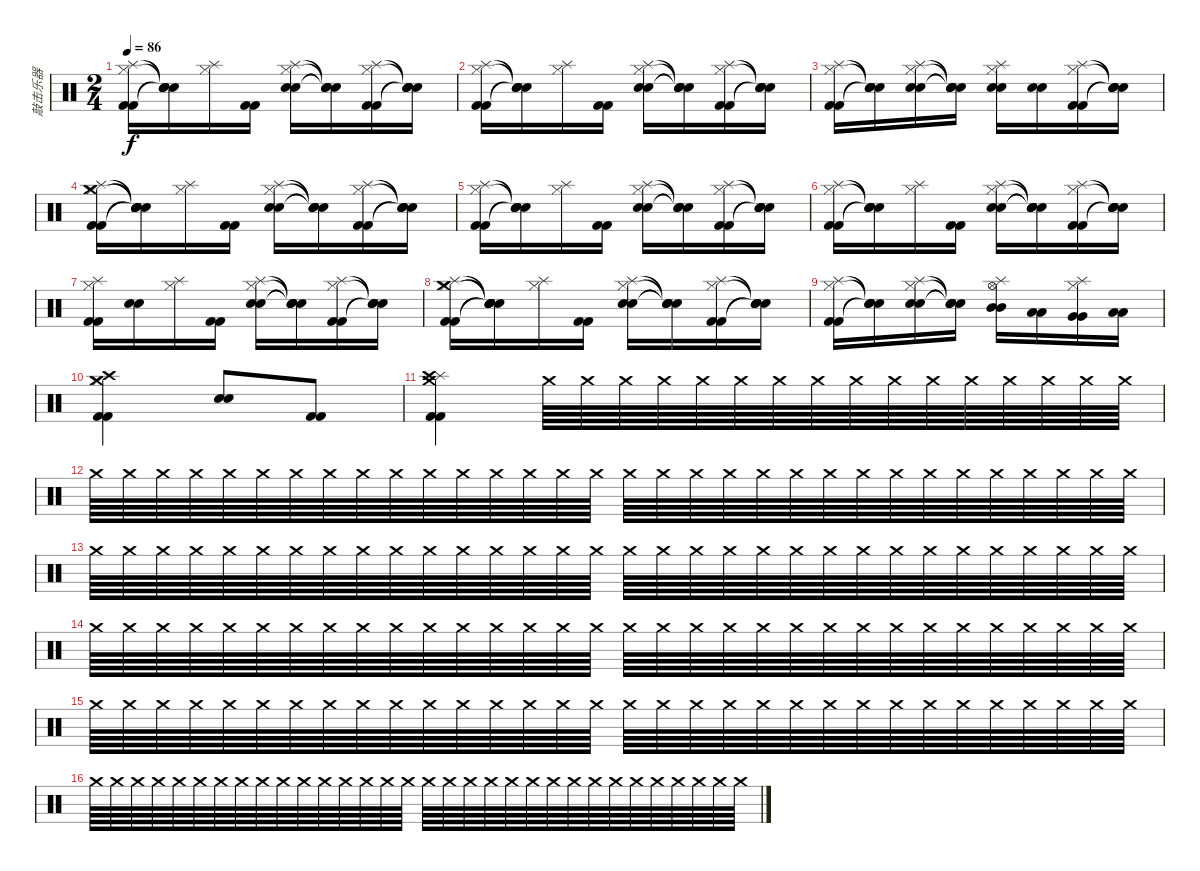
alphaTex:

\track ("敲击乐器" "敲击乐器") {instrument percussion}
\staff {score}
\articulation defaults
\ts (2 4)
\tempo 86
\clef neutral
\ks c
("Hi-Hat (closed)" "Splash (hit)" "Kick (hit) 2" "Kick (hit) 2").16{dy f} ("Snare (hit)"{t} "Snare (hit)"{t} "Snare (hit)"{t} "Snare (hit)"{t}).16 ("Hi-Hat (closed)" "Splash (hit)").16 ("Kick (hit) 2" "Kick (hit) 2").16 ("Hi-Hat (closed)" "Splash (hit)" "Electric Snare (hit)" "Electric Snare (hit)").16 ("Snare (hit)"{t} "Snare (hit)"{t} "Snare (hit)"{t} "Snare (hit)"{t}).16 ("Hi-Hat (closed)" "Splash (hit)" "Kick (hit) 2" "Kick (hit) 2").16 ("Snare (hit)"{t} "Snare (hit)"{t} "Snare (hit)"{t} "Snare (hit)"{t}).16 |
("Hi-Hat (closed)" "Splash (hit)" "Kick (hit) 2" "Kick (hit) 2").16 ("Snare (hit)"{t} "Snare (hit)"{t} "Snare (hit)"{t} "Snare (hit)"{t}).16 ("Hi-Hat (closed)" "Splash (hit)").16 ("Kick (hit) 2" "Kick (hit) 2").16 ("Hi-Hat (closed)" "Splash (hit)" "Electric Snare (hit)" "Electric Snare (hit)").16 ("Snare (hit)"{t} "Snare (hit)"{t} "Snare (hit)"{t} "Snare (hit)"{t}).16 ("Hi-Hat (closed)" "Splash (hit)" "Kick (hit) 2" "Kick (hit) 2").16 ("Snare (hit)"{t} "Snare (hit)"{t} "Snare (hit)"{t} "Snare (hit)"{t}).16 |
("Hi-Hat (closed)" "Splash (hit)" "Kick (hit) 2" "Kick (hit) 2").16 ("Snare (hit)"{t} "Snare (hit)"{t} "Snare (hit)"{t} "Snare (hit)"{t}).16 ("Hi-Hat (closed)" "Splash (hit)" "Electric Snare (hit)" "Electric Snare (hit)").16 ("Snare (hit)"{t} "Snare (hit)"{t} "Snare (hit)"{t} "Snare (hit)"{t}).16 ("Hi-Hat (closed)" "Splash (hit)" "Electric Snare (hit)" "Electric Snare (hit)").16 ("Electric Snare (hit)" "Electric Snare (hit)").16 ("Hi-Hat (closed)" "Splash (hit)" "Kick (hit) 2" "Kick (hit) 2").16 ("Snare (hit)"{t} "Snare (hit)"{t} "Snare (hit)"{t} "Snare (hit)"{t}).16 |
("Hi-Hat (closed)" "Splash (hit)" "Crash medium (hit)" "Kick (hit) 2" "Kick (hit) 2").16 ("Snare (hit)"{t} "Snare (hit)"{t} "Snare (hit)"{t} "Snare (hit)"{t} "Snare (hit)"{t}).16 ("Hi-Hat (closed)" "Splash (hit)").16 ("Kick (hit) 2" "Kick (hit) 2").16 ("Hi-Hat (closed)" "Splash (hit)" "Electric Snare (hit)" "Electric Snare (hit)").16 ("Snare (hit)"{t} "Snare (hit)"{t} "Snare (hit)"{t} "Snare (hit)"{t}).16 ("Hi-Hat (closed)" "Splash (hit)" "Kick (hit) 2" "Kick (hit) 2").16 ("Snare (hit)"{t} "Snare (hit)"{t} "Snare (hit)"{t} "Snare (hit)"{t}).16 |
("Hi-Hat (closed)" "Splash (hit)" "Kick (hit) 2" "Kick (hit) 2").16 ("Snare (hit)"{t} "Snare (hit)"{t} "Snare (hit)"{t} "Snare (hit)"{t}).16 ("Hi-Hat (closed)" "Splash (hit)").16 ("Kick (hit) 2" "Kick (hit) 2").16 ("Hi-Hat (closed)" "Splash (hit)" "Electric Snare (hit)" "Electric Snare (hit)").16 ("Snare (hit)"{t} "Snare (hit)"{t} "Snare (hit)"{t} "Snare (hit)"{t}).16 ("Hi-Hat (closed)" "Splash (hit)" "Kick (hit) 2" "Kick (hit) 2").16 ("Snare (hit)"{t} "Snare (hit)"{t} "Snare (hit)"{t} "Snare (hit)"{t}).16 |
("Hi-Hat (closed)" "Splash (hit)" "Kick (hit) 2" "Kick (hit) 2").16 ("Snare (hit)"{t} "Snare (hit)"{t} "Snare (hit)"{t} "Snare (hit)"{t}).16 ("Hi-Hat (closed)" "Splash (hit)").16 ("Kick (hit) 2" "Kick (hit) 2").16 ("Hi-Hat (closed)" "Splash (hit)" "Electric Snare (hit)" "Electric Snare (hit)").16 ("Snare (hit)"{t} "Snare (hit)"{t} "Snare (hit)"{t} "Snare (hit)"{t}).16 ("Hi-Hat (closed)" "Splash (hit)" "Kick (hit) 2" "Kick (hit) 2").16 ("Snare (hit)"{t} "Snare (hit)"{t} "Snare (hit)"{t} "Snare (hit)"{t}).16 |
("Hi-Hat (closed)" "Splash (hit)" "Kick (hit) 2" "Kick (hit) 2").16 ("Electric Snare (hit)" "Electric Snare (hit)").16 ("Hi-Hat (closed)" "Splash (hit)").16 ("Kick (hit) 2" "Kick (hit) 2").16 ("Hi-Hat (closed)" "Splash (hit)" "Electric Snare (hit)" "Electric Snare (hit)").16 ("Snare (hit)"{t} "Snare (hit)"{t} "Snare (hit)"{t} "Snare (hit)"{t}).16 ("Hi-Hat (closed)" "Splash (hit)" "Kick (hit) 2" "Kick (hit) 2").16 ("Snare (hit)"{t} "Snare (hit)"{t} "Snare (hit)"{t} "Snare (hit)"{t}).16 |
("Hi-Hat (closed)" "Splash (hit)" "Crash medium (hit)" "Kick (hit) 2" "Kick (hit) 2").16 ("Snare (hit)"{t} "Snare (hit)"{t} "Snare (hit)"{t} "Snare (hit)"{t} "Snare (hit)"{t}).16 ("Hi-Hat (closed)" "Splash (hit)").16 ("Kick (hit) 2" "Kick (hit) 2").16 ("Hi-Hat (closed)" "Splash (hit)" "Electric Snare (hit)" "Electric Snare (hit)").16 ("Snare (hit)"{t} "Snare (hit)"{t} "Snare (hit)"{t} "Snare (hit)"{t}).16 ("Hi-Hat (closed)" "Splash (hit)" "Kick (hit) 2" "Kick (hit) 2").16 ("Snare (hit)"{t} "Snare (hit)"{t} "Snare (hit)"{t} "Snare (hit)"{t}).16 |
("Hi-Hat (closed)" "Splash (hit)" "Kick (hit) 2" "Kick (hit) 2").16 ("Snare (hit)"{t} "Snare (hit)"{t} "Snare (hit)"{t} "Snare (hit)"{t}).16 ("Hi-Hat (closed)" "Splash (hit)" "Electric Snare (hit)" "Electric Snare (hit)").16 ("Snare (hit)"{t} "Snare (hit)"{t} "Snare (hit)"{t} "Snare (hit)"{t}).16 ("Hi-Hat (open)" "Splash (hit)" "Mid Tom (hit)" "Mid Tom (hit)").16 ("Low Tom (hit)" "Low Tom (hit)").16 ("Hi-Hat (closed)" "Splash (hit)" "Very Low Tom (hit)" "Very Low Tom (hit)").16 ("Low Floor Tom (hit)" "Low Floor Tom (hit)").16 |
("Hi-Hat (closed)" "Crash medium (hit)" "Crash high (hit)" "Kick (hit) 2" "Kick (hit) 2").4 ("Snare (hit) 2" "Snare (hit) 2").8 ("Kick (hit) 2" "Kick (hit) 2").8 |
("Splash (hit)" "Crash medium (hit)" "Crash high (hit)" "Kick (hit) 2" "Kick (hit) 2").4 "Crash medium (hit)".64 "Crash medium (hit)".64 "Crash medium (hit)".64 "Crash medium (hit)".64 "Crash medium (hit)".64 "Crash medium (hit)".64 "Crash medium (hit)".64 "Crash medium (hit)".64 "Crash medium (hit)".64 "Crash medium (hit)".64 "Crash medium (hit)".64 "Crash medium (hit)".64 "Crash medium (hit)".64 "Crash medium (hit)".64 "Crash medium (hit)".64 "Crash medium (hit)".64 |
"Crash medium (hit)".64 "Crash medium (hit)".64 "Crash medium (hit)".64 "Crash medium (hit)".64 "Crash medium (hit)".64 "Crash medium (hit)".64 "Crash medium (hit)".64 "Crash medium (hit)".64 "Crash medium (hit)".64 "Crash medium (hit)".64 "Crash medium (hit)".64 "Crash medium (hit)".64 "Crash medium (hit)".64 "Crash medium (hit)".64 "Crash medium (hit)".64 "Crash medium (hit)".64 "Crash medium (hit)".64 "Crash medium (hit)".64 "Crash medium (hit)".64 "Crash medium (hit)".64 "Crash medium (hit)".64 "Crash medium (hit)".64 "Crash medium (hit)".64 "Crash medium (hit)".64 "Crash medium (hit)".64 "Crash medium (hit)".64 "Crash medium (hit)".64 "Crash medium (hit)".64 "Crash medium (hit)".64 "Crash medium (hit)".64 "Crash medium (hit)".64 "Crash medium (hit)".64 |
"Crash medium (hit)".64 "Crash medium (hit)".64 "Crash medium (hit)".64 "Crash medium (hit)".64 "Crash medium (hit)".64 "Crash medium (hit)".64 "Crash medium (hit)".64 "Crash medium (hit)".64 "Crash medium (hit)".64 "Crash medium (hit)".64 "Crash medium (hit)".64 "Crash medium (hit)".64 "Crash medium (hit)".64 "Crash medium (hit)".64 "Crash medium (hit)".64 "Crash medium (hit)".64 "Crash medium (hit)".64 "Crash medium (hit)".64 "Crash medium (hit)".64 "Crash medium (hit)".64 "Crash medium (hit)".64 "Crash medium (hit)".64 "Crash medium (hit)".64 "Crash medium (hit)".64 "Crash medium (hit)".64 "Crash medium (hit)".64 "Crash medium (hit)".64 "Crash medium (hit)".64 "Crash medium (hit)".64 "Crash medium (hit)".64 "Crash medium (hit)".64 "Crash medium (hit)".64 |
"Crash medium (hit)".64 "Crash medium (hit)".64 "Crash medium (hit)".64 "Crash medium (hit)".64 "Crash medium (hit)".64 "Crash medium (hit)".64 "Crash medium (hit)".64 "Crash medium (hit)".64 "Crash medium (hit)".64 "Crash medium (hit)".64 "Crash medium (hit)".64 "Crash medium (hit)".64 "Crash medium (hit)".64 "Crash medium (hit)".64 "Crash medium (hit)".64 "Crash medium (hit)".64 "Crash medium (hit)".64 "Crash medium (hit)".64 "Crash medium (hit)".64 "Crash medium (hit)".64 "Crash medium (hit)".64 "Crash medium (hit)".64 "Crash medium (hit)".64 "Crash medium (hit)".64 "Crash medium (hit)".64 "Crash medium (hit)".64 "Crash medium (hit)".64 "Crash medium (hit)".64 "Crash medium (hit)".64 "Crash medium (hit)".64 "Crash medium (hit)".64 "Crash medium (hit)".64 |
"Crash medium (hit)".64 "Crash medium (hit)".64 "Crash medium (hit)".64 "Crash medium (hit)".64 "Crash medium (hit)".64 "Crash medium (hit)".64 "Crash medium (hit)".64 "Crash medium (hit)".64 "Crash medium (hit)".64 "Crash medium (hit)".64 "Crash medium (hit)".64 "Crash medium (hit)".64 "Crash medium (hit)".64 "Crash medium (hit)".64 "Crash medium (hit)".64 "Crash medium (hit)".64 "Crash medium (hit)".64 "Crash medium (hit)".64 "Crash medium (hit)".64 "Crash medium (hit)".64 "Crash medium (hit)".64 "Crash medium (hit)".64 "Crash medium (hit)".64 "Crash medium (hit)".64 "Crash medium (hit)".64 "Crash medium (hit)".64 "Crash medium (hit)".64 "Crash medium (hit)".64 "Crash medium (hit)".64 "Crash medium (hit)".64 "Crash medium (hit)".64 "Crash medium (hit)".64 |
"Crash medium (hit)".64 "Crash medium (hit)".64 "Crash medium (hit)".64 "Crash medium (hit)".64 "Crash medium (hit)".64 "Crash medium (hit)".64 "Crash medium (hit)".64 "Crash medium (hit)".64 "Crash medium (hit)".64 "Crash medium (hit)".64 "Crash medium (hit)".64 "Crash medium (hit)".64 "Crash medium (hit)".64 "Crash medium (hit)".64 "Crash medium (hit)".64 "Crash medium (hit)".64 "Crash medium (hit)".64 "Crash medium (hit)".64 "Crash medium (hit)".64 "Crash medium (hit)".64 "Crash medium (hit)".64 "Crash medium (hit)".64 "Crash medium (hit)".64 "Crash medium (hit)".64 "Crash medium (hit)".64 "Crash medium (hit)".64 "Crash medium (hit)".64 "Crash medium (hit)".64 "Crash medium (hit)".64 "Crash medium (hit)".64 "Crash medium (hit)".64 "Crash medium (hit)".64
